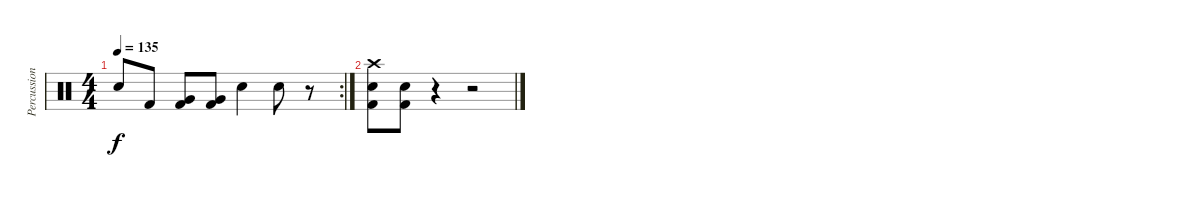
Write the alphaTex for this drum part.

\track ("Percussion" "Percussion") {instrument percussion}
\staff {score}
\articulation defaults
\rc 2
\ts (4 4)
\tempo 135
\clef neutral
\ks c "Snare (hit) 2".8{dy f} "Kick (hit) 2".8
("Very Low Tom (hit)" "Kick (hit) 2").8 ("Very Low Tom (hit)" "Kick (hit) 2").8 "Snare (hit) 2".4 "Snare (hit) 2".8 r.8 |
("Crash high (hit)" "Snare (hit) 2" "Kick (hit) 2").8 ("Snare (hit) 2" "Kick (hit) 2").8 r.4 r.2
